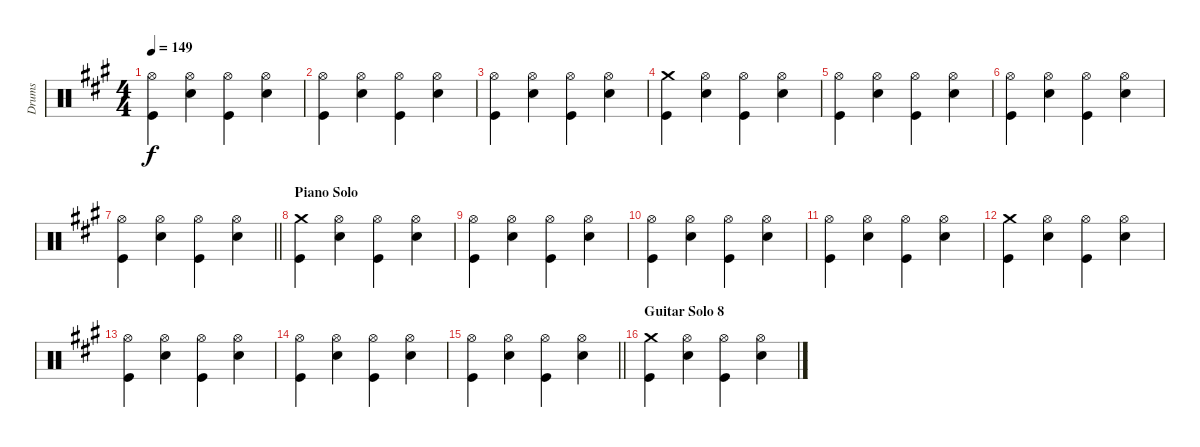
\track ("Drums" "Drums") {instrument percussion}
\staff {score}
\articulation defaults
\ts (4 4)
\tempo 149
\clef neutral
\ks f#minor
("Hi-Hat (open)" "Kick (hit)").4{dy f} ("Hi-Hat (open)" "Snare (hit) 2").4 ("Hi-Hat (open)" "Kick (hit)").4 ("Hi-Hat (open)" "Snare (hit) 2").4 |
("Hi-Hat (open)" "Kick (hit)").4 ("Hi-Hat (open)" "Snare (hit) 2").4 ("Hi-Hat (open)" "Kick (hit)").4 ("Hi-Hat (open)" "Snare (hit) 2").4 |
("Hi-Hat (open)" "Kick (hit)").4 ("Hi-Hat (open)" "Snare (hit) 2").4 ("Hi-Hat (open)" "Kick (hit)").4 ("Hi-Hat (open)" "Snare (hit) 2").4 |
("Crash medium (hit)" "Kick (hit)").4 ("Hi-Hat (open)" "Snare (hit) 2").4 ("Hi-Hat (open)" "Kick (hit)").4 ("Hi-Hat (open)" "Snare (hit) 2").4 |
("Hi-Hat (open)" "Kick (hit)").4 ("Hi-Hat (open)" "Snare (hit) 2").4 ("Hi-Hat (open)" "Kick (hit)").4 ("Hi-Hat (open)" "Snare (hit) 2").4 |
("Hi-Hat (open)" "Kick (hit)").4 ("Hi-Hat (open)" "Snare (hit) 2").4 ("Hi-Hat (open)" "Kick (hit)").4 ("Hi-Hat (open)" "Snare (hit) 2").4 |
\barLineRight lightlight
("Hi-Hat (open)" "Kick (hit)").4 ("Hi-Hat (open)" "Snare (hit) 2").4 ("Hi-Hat (open)" "Kick (hit)").4 ("Hi-Hat (open)" "Snare (hit) 2").4 |
\section ("" "Piano Solo")
("Crash medium (hit)" "Kick (hit)").4 ("Hi-Hat (open)" "Snare (hit) 2").4 ("Hi-Hat (open)" "Kick (hit)").4 ("Hi-Hat (open)" "Snare (hit) 2").4 |
("Hi-Hat (open)" "Kick (hit)").4 ("Hi-Hat (open)" "Snare (hit) 2").4 ("Hi-Hat (open)" "Kick (hit)").4 ("Hi-Hat (open)" "Snare (hit) 2").4 |
("Hi-Hat (open)" "Kick (hit)").4 ("Hi-Hat (open)" "Snare (hit) 2").4 ("Hi-Hat (open)" "Kick (hit)").4 ("Hi-Hat (open)" "Snare (hit) 2").4 |
("Hi-Hat (open)" "Kick (hit)").4 ("Hi-Hat (open)" "Snare (hit) 2").4 ("Hi-Hat (open)" "Kick (hit)").4 ("Hi-Hat (open)" "Snare (hit) 2").4 |
("Crash medium (hit)" "Kick (hit)").4 ("Hi-Hat (open)" "Snare (hit) 2").4 ("Hi-Hat (open)" "Kick (hit)").4 ("Hi-Hat (open)" "Snare (hit) 2").4 |
("Hi-Hat (open)" "Kick (hit)").4 ("Hi-Hat (open)" "Snare (hit) 2").4 ("Hi-Hat (open)" "Kick (hit)").4 ("Hi-Hat (open)" "Snare (hit) 2").4 |
("Hi-Hat (open)" "Kick (hit)").4 ("Hi-Hat (open)" "Snare (hit) 2").4 ("Hi-Hat (open)" "Kick (hit)").4 ("Hi-Hat (open)" "Snare (hit) 2").4 |
\barLineRight lightlight
("Hi-Hat (open)" "Kick (hit)").4 ("Hi-Hat (open)" "Snare (hit) 2").4 ("Hi-Hat (open)" "Kick (hit)").4 ("Hi-Hat (open)" "Snare (hit) 2").4 |
\section ("" "Guitar Solo 8")
("Crash medium (hit)" "Kick (hit)").4 ("Hi-Hat (open)" "Snare (hit) 2").4 ("Hi-Hat (open)" "Kick (hit)").4 ("Hi-Hat (open)" "Snare (hit) 2").4
